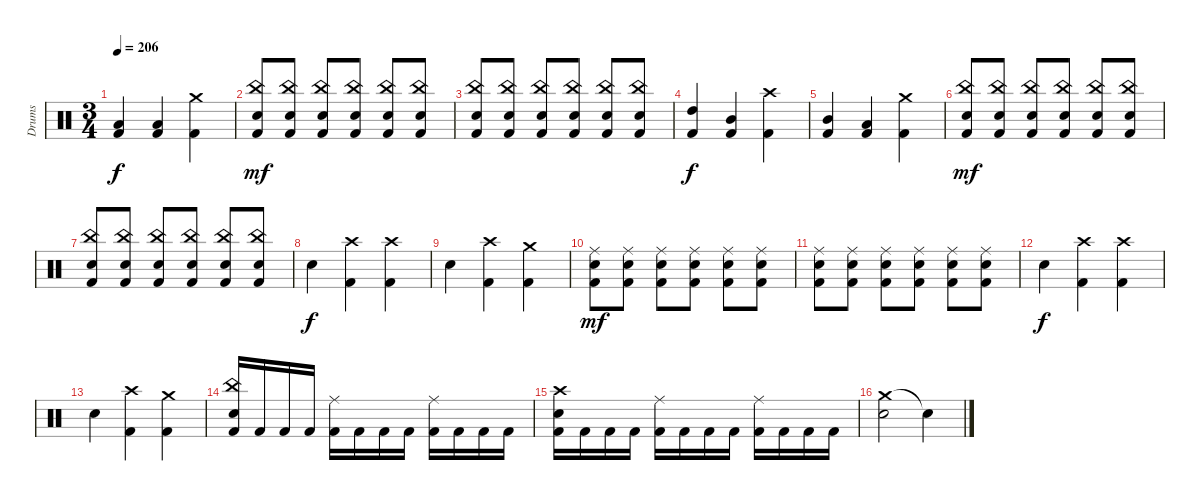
\track ("Drums" "Drums") {instrument percussion}
\staff {score}
\articulation defaults
\ts (3 4)
\tempo 206
\clef neutral
\ks c
("Low Tom (hit)" "Kick (hit) 2").4{dy f} ("Low Tom (hit)" "Kick (hit) 2").4 ("Crash medium (hit)" "Kick (hit) 2").4 |
("China (hit)" "Electric Snare (hit)" "Kick (hit) 2").8{dy mf} ("China (hit)" "Electric Snare (hit)" "Kick (hit) 2").8 ("China (hit)" "Electric Snare (hit)" "Kick (hit) 2").8 ("China (hit)" "Electric Snare (hit)" "Kick (hit) 2").8 ("China (hit)" "Electric Snare (hit)" "Kick (hit) 2").8 ("China (hit)" "Electric Snare (hit)" "Kick (hit) 2").8 |
("China (hit)" "Electric Snare (hit)" "Kick (hit) 2").8 ("China (hit)" "Electric Snare (hit)" "Kick (hit) 2").8 ("China (hit)" "Electric Snare (hit)" "Kick (hit) 2").8 ("China (hit)" "Electric Snare (hit)" "Kick (hit) 2").8 ("China (hit)" "Electric Snare (hit)" "Kick (hit) 2").8 ("China (hit)" "Electric Snare (hit)" "Kick (hit) 2").8 |
("High Tom (hit)" "Kick (hit) 2").4{dy f} ("Mid Tom (hit)" "Kick (hit) 2").4 ("Crash high (hit)" "Kick (hit) 2").4 |
("Mid Tom (hit)" "Kick (hit) 2").4 ("Low Tom (hit)" "Kick (hit) 2").4 ("Crash medium (hit)" "Kick (hit) 2").4 |
("China (hit)" "Electric Snare (hit)" "Kick (hit) 2").8{dy mf} ("China (hit)" "Electric Snare (hit)" "Kick (hit) 2").8 ("China (hit)" "Electric Snare (hit)" "Kick (hit) 2").8 ("China (hit)" "Electric Snare (hit)" "Kick (hit) 2").8 ("China (hit)" "Electric Snare (hit)" "Kick (hit) 2").8 ("China (hit)" "Electric Snare (hit)" "Kick (hit) 2").8 |
("China (hit)" "Electric Snare (hit)" "Kick (hit) 2").8 ("China (hit)" "Electric Snare (hit)" "Kick (hit) 2").8 ("China (hit)" "Electric Snare (hit)" "Kick (hit) 2").8 ("China (hit)" "Electric Snare (hit)" "Kick (hit) 2").8 ("China (hit)" "Electric Snare (hit)" "Kick (hit) 2").8 ("China (hit)" "Electric Snare (hit)" "Kick (hit) 2").8 |
"Electric Snare (hit)".4{dy f} ("Crash high (hit)" "Kick (hit) 2").4 ("Crash high (hit)" "Kick (hit) 2").4 |
"Electric Snare (hit)".4 ("Crash high (hit)" "Kick (hit) 2").4 ("Crash medium (hit)" "Kick (hit) 2").4 |
("Ride (middle)" "Electric Snare (hit)" "Kick (hit) 2").8{dy mf} ("Ride (middle)" "Electric Snare (hit)" "Kick (hit) 2").8 ("Ride (middle)" "Electric Snare (hit)" "Kick (hit) 2").8 ("Ride (middle)" "Electric Snare (hit)" "Kick (hit) 2").8 ("Ride (middle)" "Electric Snare (hit)" "Kick (hit) 2").8 ("Ride (middle)" "Electric Snare (hit)" "Kick (hit) 2").8 |
("Ride (middle)" "Electric Snare (hit)" "Kick (hit) 2").8 ("Ride (middle)" "Electric Snare (hit)" "Kick (hit) 2").8 ("Ride (middle)" "Electric Snare (hit)" "Kick (hit) 2").8 ("Ride (middle)" "Electric Snare (hit)" "Kick (hit) 2").8 ("Ride (middle)" "Electric Snare (hit)" "Kick (hit) 2").8 ("Ride (middle)" "Electric Snare (hit)" "Kick (hit) 2").8 |
"Electric Snare (hit)".4{dy f} ("Crash high (hit)" "Kick (hit) 2").4 ("Crash high (hit)" "Kick (hit) 2").4 |
"Electric Snare (hit)".4 ("Crash high (hit)" "Kick (hit) 2").4 ("Crash medium (hit)" "Kick (hit) 2").4 |
("China (hit)" "Electric Snare (hit)" "Kick (hit) 2").16 "Kick (hit) 2".16 "Kick (hit) 2".16 "Kick (hit) 2".16 ("Ride (middle)" "Kick (hit) 2").16 "Kick (hit) 2".16 "Kick (hit) 2".16 "Kick (hit) 2".16 ("Ride (middle)" "Kick (hit) 2").16 "Kick (hit) 2".16 "Kick (hit) 2".16 "Kick (hit) 2".16 |
("Crash high (hit)" "Electric Snare (hit)" "Kick (hit) 2").16 "Kick (hit) 2".16 "Kick (hit) 2".16 "Kick (hit) 2".16 ("Ride (middle)" "Kick (hit) 2").16 "Kick (hit) 2".16 "Kick (hit) 2".16 "Kick (hit) 2".16 ("Ride (middle)" "Kick (hit) 2").16 "Kick (hit) 2".16 "Kick (hit) 2".16 "Kick (hit) 2".16 |
("Crash medium (hit)" "Electric Snare (hit)").2 "Snare (hit)"{t}.4
